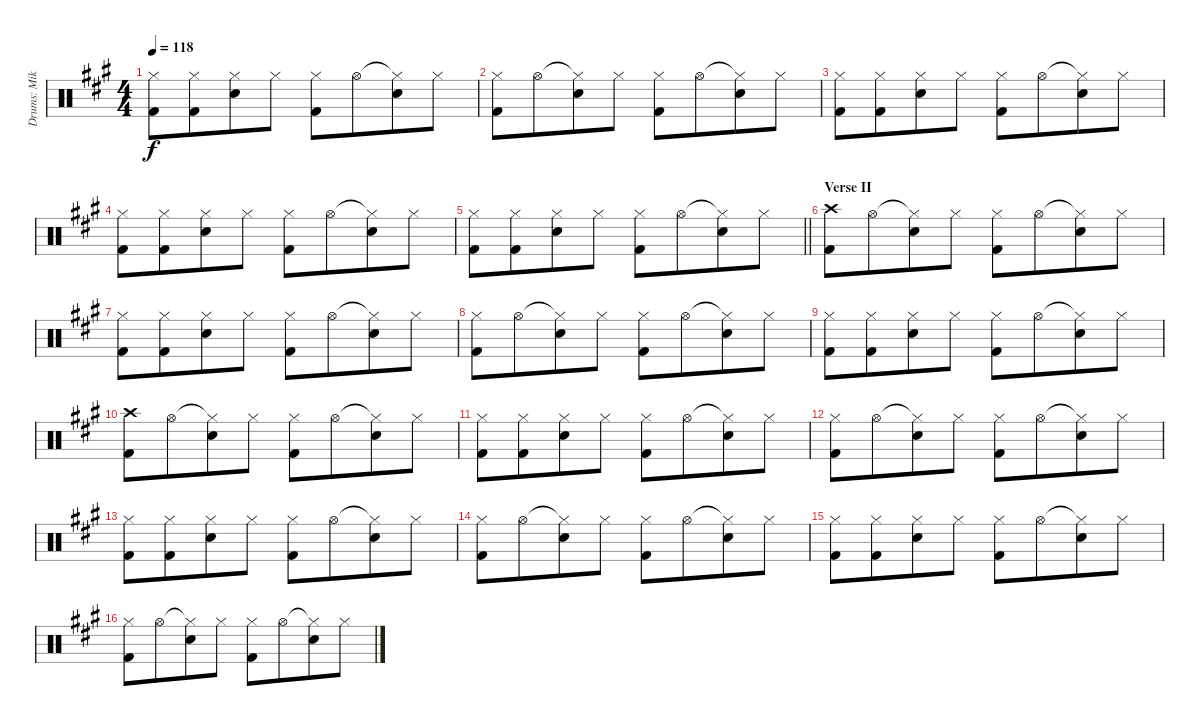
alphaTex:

\track ("Drums: Mike" "Drums: Mik") {instrument percussion}
\staff {score}
\articulation defaults
\ts (4 4)
\tempo 118
\clef neutral
\ks a
("Hi-Hat (closed)" "Kick (hit) 2").8{dy f} ("Hi-Hat (closed)" "Kick (hit) 2").8{beam merge} ("Hi-Hat (closed)" "Electric Snare (hit)").8{beam merge} "Hi-Hat (closed)".8 ("Hi-Hat (closed)" "Kick (hit) 2").8 "Hi-Hat (open)".8{beam merge} ("Hi-Hat (closed)"{t} "Electric Snare (hit)").8{beam merge} "Hi-Hat (closed)".8 |
("Hi-Hat (closed)" "Kick (hit) 2").8 "Hi-Hat (open)".8{beam merge} ("Hi-Hat (closed)"{t} "Electric Snare (hit)").8{beam merge} "Hi-Hat (closed)".8 ("Hi-Hat (closed)" "Kick (hit) 2").8 "Hi-Hat (open)".8{beam merge} ("Hi-Hat (closed)"{t} "Electric Snare (hit)").8{beam merge} "Hi-Hat (closed)".8 |
("Hi-Hat (closed)" "Kick (hit) 2").8 ("Hi-Hat (closed)" "Kick (hit) 2").8{beam merge} ("Hi-Hat (closed)" "Electric Snare (hit)").8{beam merge} "Hi-Hat (closed)".8 ("Hi-Hat (closed)" "Kick (hit) 2").8 "Hi-Hat (open)".8{beam merge} ("Hi-Hat (closed)"{t} "Electric Snare (hit)").8{beam merge} "Hi-Hat (closed)".8 |
("Hi-Hat (closed)" "Kick (hit) 2").8 ("Hi-Hat (closed)" "Kick (hit) 2").8{beam merge} ("Hi-Hat (closed)" "Electric Snare (hit)").8{beam merge} "Hi-Hat (closed)".8 ("Hi-Hat (closed)" "Kick (hit) 2").8 "Hi-Hat (open)".8{beam merge} ("Hi-Hat (closed)"{t} "Electric Snare (hit)").8{beam merge} "Hi-Hat (closed)".8 |
\barLineRight lightlight
("Hi-Hat (closed)" "Kick (hit) 2").8 ("Hi-Hat (closed)" "Kick (hit) 2").8{beam merge} ("Hi-Hat (closed)" "Electric Snare (hit)").8{beam merge} "Hi-Hat (closed)".8 ("Hi-Hat (closed)" "Kick (hit) 2").8 "Hi-Hat (open)".8{beam merge} ("Hi-Hat (closed)"{t} "Electric Snare (hit)").8{beam merge} "Hi-Hat (closed)".8 |
\section ("" "Verse II")
("Crash high (hit)" "Kick (hit) 2").8 "Hi-Hat (open)".8{beam merge} ("Hi-Hat (closed)"{t} "Electric Snare (hit)").8{beam merge} "Hi-Hat (closed)".8 ("Hi-Hat (closed)" "Kick (hit) 2").8 "Hi-Hat (open)".8{beam merge} ("Hi-Hat (closed)"{t} "Electric Snare (hit)").8{beam merge} "Hi-Hat (closed)".8 |
("Hi-Hat (closed)" "Kick (hit) 2").8 ("Hi-Hat (closed)" "Kick (hit) 2").8{beam merge} ("Hi-Hat (closed)" "Electric Snare (hit)").8{beam merge} "Hi-Hat (closed)".8 ("Hi-Hat (closed)" "Kick (hit) 2").8 "Hi-Hat (open)".8{beam merge} ("Hi-Hat (closed)"{t} "Electric Snare (hit)").8{beam merge} "Hi-Hat (closed)".8 |
("Hi-Hat (closed)" "Kick (hit) 2").8 "Hi-Hat (open)".8{beam merge} ("Hi-Hat (closed)"{t} "Electric Snare (hit)").8{beam merge} "Hi-Hat (closed)".8 ("Hi-Hat (closed)" "Kick (hit) 2").8 "Hi-Hat (open)".8{beam merge} ("Hi-Hat (closed)"{t} "Electric Snare (hit)").8{beam merge} "Hi-Hat (closed)".8 |
("Hi-Hat (closed)" "Kick (hit) 2").8 ("Hi-Hat (closed)" "Kick (hit) 2").8{beam merge} ("Hi-Hat (closed)" "Electric Snare (hit)").8{beam merge} "Hi-Hat (closed)".8 ("Hi-Hat (closed)" "Kick (hit) 2").8 "Hi-Hat (open)".8{beam merge} ("Hi-Hat (closed)"{t} "Electric Snare (hit)").8{beam merge} "Hi-Hat (closed)".8 |
("Crash high (hit)" "Kick (hit) 2").8 "Hi-Hat (open)".8{beam merge} ("Hi-Hat (closed)"{t} "Electric Snare (hit)").8{beam merge} "Hi-Hat (closed)".8 ("Hi-Hat (closed)" "Kick (hit) 2").8 "Hi-Hat (open)".8{beam merge} ("Hi-Hat (closed)"{t} "Electric Snare (hit)").8{beam merge} "Hi-Hat (closed)".8 |
("Hi-Hat (closed)" "Kick (hit) 2").8 ("Hi-Hat (closed)" "Kick (hit) 2").8{beam merge} ("Hi-Hat (closed)" "Electric Snare (hit)").8{beam merge} "Hi-Hat (closed)".8 ("Hi-Hat (closed)" "Kick (hit) 2").8 "Hi-Hat (open)".8{beam merge} ("Hi-Hat (closed)"{t} "Electric Snare (hit)").8{beam merge} "Hi-Hat (closed)".8 |
("Hi-Hat (closed)" "Kick (hit) 2").8 "Hi-Hat (open)".8{beam merge} ("Hi-Hat (closed)"{t} "Electric Snare (hit)").8{beam merge} "Hi-Hat (closed)".8 ("Hi-Hat (closed)" "Kick (hit) 2").8 "Hi-Hat (open)".8{beam merge} ("Hi-Hat (closed)"{t} "Electric Snare (hit)").8{beam merge} "Hi-Hat (closed)".8 |
("Hi-Hat (closed)" "Kick (hit) 2").8 ("Hi-Hat (closed)" "Kick (hit) 2").8{beam merge} ("Hi-Hat (closed)" "Electric Snare (hit)").8{beam merge} "Hi-Hat (closed)".8 ("Hi-Hat (closed)" "Kick (hit) 2").8 "Hi-Hat (open)".8{beam merge} ("Hi-Hat (closed)"{t} "Electric Snare (hit)").8{beam merge} "Hi-Hat (closed)".8 |
("Hi-Hat (closed)" "Kick (hit) 2").8 "Hi-Hat (open)".8{beam merge} ("Hi-Hat (closed)"{t} "Electric Snare (hit)").8{beam merge} "Hi-Hat (closed)".8 ("Hi-Hat (closed)" "Kick (hit) 2").8 "Hi-Hat (open)".8{beam merge} ("Hi-Hat (closed)"{t} "Electric Snare (hit)").8{beam merge} "Hi-Hat (closed)".8 |
("Hi-Hat (closed)" "Kick (hit) 2").8 ("Hi-Hat (closed)" "Kick (hit) 2").8{beam merge} ("Hi-Hat (closed)" "Electric Snare (hit)").8{beam merge} "Hi-Hat (closed)".8 ("Hi-Hat (closed)" "Kick (hit) 2").8 "Hi-Hat (open)".8{beam merge} ("Hi-Hat (closed)"{t} "Electric Snare (hit)").8{beam merge} "Hi-Hat (closed)".8 |
("Hi-Hat (closed)" "Kick (hit) 2").8 "Hi-Hat (open)".8{beam merge} ("Hi-Hat (closed)"{t} "Electric Snare (hit)").8{beam merge} "Hi-Hat (closed)".8 ("Hi-Hat (closed)" "Kick (hit) 2").8 "Hi-Hat (open)".8{beam merge} ("Hi-Hat (closed)"{t} "Electric Snare (hit)").8{beam merge} "Hi-Hat (closed)".8
